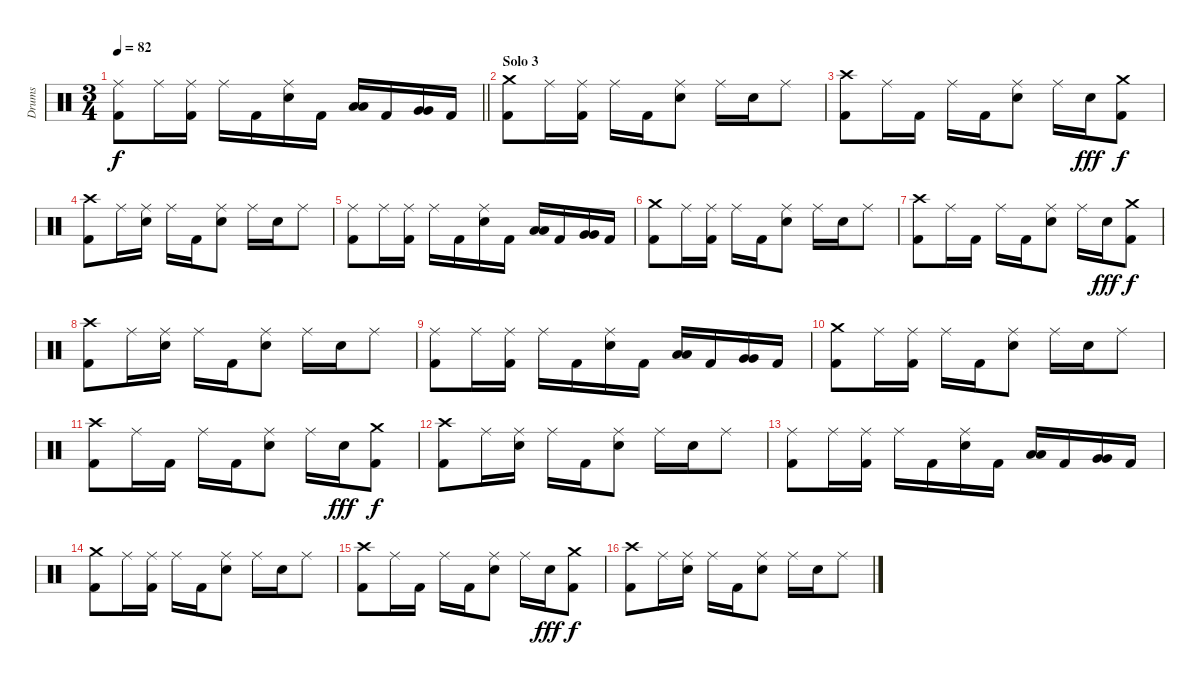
\track ("Drums" "Drums") {instrument percussion}
\staff {score}
\articulation defaults
\ts (3 4)
\tempo 82
\clef neutral
\barLineRight lightlight
\ks c
("Ride (middle)" "Kick (hit) 2").8{dy f} "Ride (middle)".16 ("Ride (middle)" "Kick (hit) 2").16 "Ride (middle)".16 "Kick (hit) 2".16 ("Ride (middle)" "Electric Snare (hit)").16 "Kick (hit) 2".16 ("Low Tom (hit)" "Low Tom (hit)").16{bd 60} "Kick (hit) 2".16 ("Very Low Tom (hit)" "Very Low Tom (hit)").16{bd 60} "Kick (hit) 2".16 |
\section ("" "Solo 3")
("Crash medium (hit)" "Kick (hit) 2").8 "Ride (middle)".16 ("Ride (middle)" "Kick (hit) 2").16 "Ride (middle)".16 "Kick (hit) 2".16 ("Ride (middle)" "Electric Snare (hit)").8 "Ride (middle)".16 "Electric Snare (hit)".16 "Ride (middle)".8 |
("Crash high (hit)" "Kick (hit) 2").8 "Ride (middle)".16 "Kick (hit) 2".16 "Ride (middle)".16 "Kick (hit) 2".16 ("Ride (middle)" "Electric Snare (hit)").8 "Ride (middle)".16 "Electric Snare (hit)".16{dy fff} ("Crash medium (hit)" "Kick (hit) 2").8{dy f} |
("Crash high (hit)" "Kick (hit) 2").8 "Ride (middle)".16 ("Ride (middle)" "Electric Snare (hit)").16 "Ride (middle)".16 "Kick (hit) 2".16 ("Ride (middle)" "Electric Snare (hit)").8 "Ride (middle)".16 "Electric Snare (hit)".16 "Ride (middle)".8 |
("Ride (middle)" "Kick (hit) 2").8 "Ride (middle)".16 ("Ride (middle)" "Kick (hit) 2").16 "Ride (middle)".16 "Kick (hit) 2".16 ("Ride (middle)" "Electric Snare (hit)").16 "Kick (hit) 2".16 ("Low Tom (hit)" "Low Tom (hit)").16{bd 60} "Kick (hit) 2".16 ("Very Low Tom (hit)" "Very Low Tom (hit)").16{bd 60} "Kick (hit) 2".16 |
("Crash medium (hit)" "Kick (hit) 2").8 "Ride (middle)".16 ("Ride (middle)" "Kick (hit) 2").16 "Ride (middle)".16 "Kick (hit) 2".16 ("Ride (middle)" "Electric Snare (hit)").8 "Ride (middle)".16 "Electric Snare (hit)".16 "Ride (middle)".8 |
("Crash high (hit)" "Kick (hit) 2").8 "Ride (middle)".16 "Kick (hit) 2".16 "Ride (middle)".16 "Kick (hit) 2".16 ("Ride (middle)" "Electric Snare (hit)").8 "Ride (middle)".16 "Electric Snare (hit)".16{dy fff} ("Crash medium (hit)" "Kick (hit) 2").8{dy f} |
("Crash high (hit)" "Kick (hit) 2").8 "Ride (middle)".16 ("Ride (middle)" "Electric Snare (hit)").16 "Ride (middle)".16 "Kick (hit) 2".16 ("Ride (middle)" "Electric Snare (hit)").8 "Ride (middle)".16 "Electric Snare (hit)".16 "Ride (middle)".8 |
("Ride (middle)" "Kick (hit) 2").8 "Ride (middle)".16 ("Ride (middle)" "Kick (hit) 2").16 "Ride (middle)".16 "Kick (hit) 2".16 ("Ride (middle)" "Electric Snare (hit)").16 "Kick (hit) 2".16 ("Low Tom (hit)" "Low Tom (hit)").16{bd 60} "Kick (hit) 2".16 ("Very Low Tom (hit)" "Very Low Tom (hit)").16{bd 60} "Kick (hit) 2".16 |
("Crash medium (hit)" "Kick (hit) 2").8 "Ride (middle)".16 ("Ride (middle)" "Kick (hit) 2").16 "Ride (middle)".16 "Kick (hit) 2".16 ("Ride (middle)" "Electric Snare (hit)").8 "Ride (middle)".16 "Electric Snare (hit)".16 "Ride (middle)".8 |
("Crash high (hit)" "Kick (hit) 2").8 "Ride (middle)".16 "Kick (hit) 2".16 "Ride (middle)".16 "Kick (hit) 2".16 ("Ride (middle)" "Electric Snare (hit)").8 "Ride (middle)".16 "Electric Snare (hit)".16{dy fff} ("Crash medium (hit)" "Kick (hit) 2").8{dy f} |
("Crash high (hit)" "Kick (hit) 2").8 "Ride (middle)".16 ("Ride (middle)" "Electric Snare (hit)").16 "Ride (middle)".16 "Kick (hit) 2".16 ("Ride (middle)" "Electric Snare (hit)").8 "Ride (middle)".16 "Electric Snare (hit)".16 "Ride (middle)".8 |
("Ride (middle)" "Kick (hit) 2").8 "Ride (middle)".16 ("Ride (middle)" "Kick (hit) 2").16 "Ride (middle)".16 "Kick (hit) 2".16 ("Ride (middle)" "Electric Snare (hit)").16 "Kick (hit) 2".16 ("Low Tom (hit)" "Low Tom (hit)").16{bd 60} "Kick (hit) 2".16 ("Very Low Tom (hit)" "Very Low Tom (hit)").16{bd 60} "Kick (hit) 2".16 |
("Crash medium (hit)" "Kick (hit) 2").8 "Ride (middle)".16 ("Ride (middle)" "Kick (hit) 2").16 "Ride (middle)".16 "Kick (hit) 2".16 ("Ride (middle)" "Electric Snare (hit)").8 "Ride (middle)".16 "Electric Snare (hit)".16 "Ride (middle)".8 |
("Crash high (hit)" "Kick (hit) 2").8 "Ride (middle)".16 "Kick (hit) 2".16 "Ride (middle)".16 "Kick (hit) 2".16 ("Ride (middle)" "Electric Snare (hit)").8 "Ride (middle)".16 "Electric Snare (hit)".16{dy fff} ("Crash medium (hit)" "Kick (hit) 2").8{dy f} |
("Crash high (hit)" "Kick (hit) 2").8 "Ride (middle)".16 ("Ride (middle)" "Electric Snare (hit)").16 "Ride (middle)".16 "Kick (hit) 2".16 ("Ride (middle)" "Electric Snare (hit)").8 "Ride (middle)".16 "Electric Snare (hit)".16 "Ride (middle)".8
